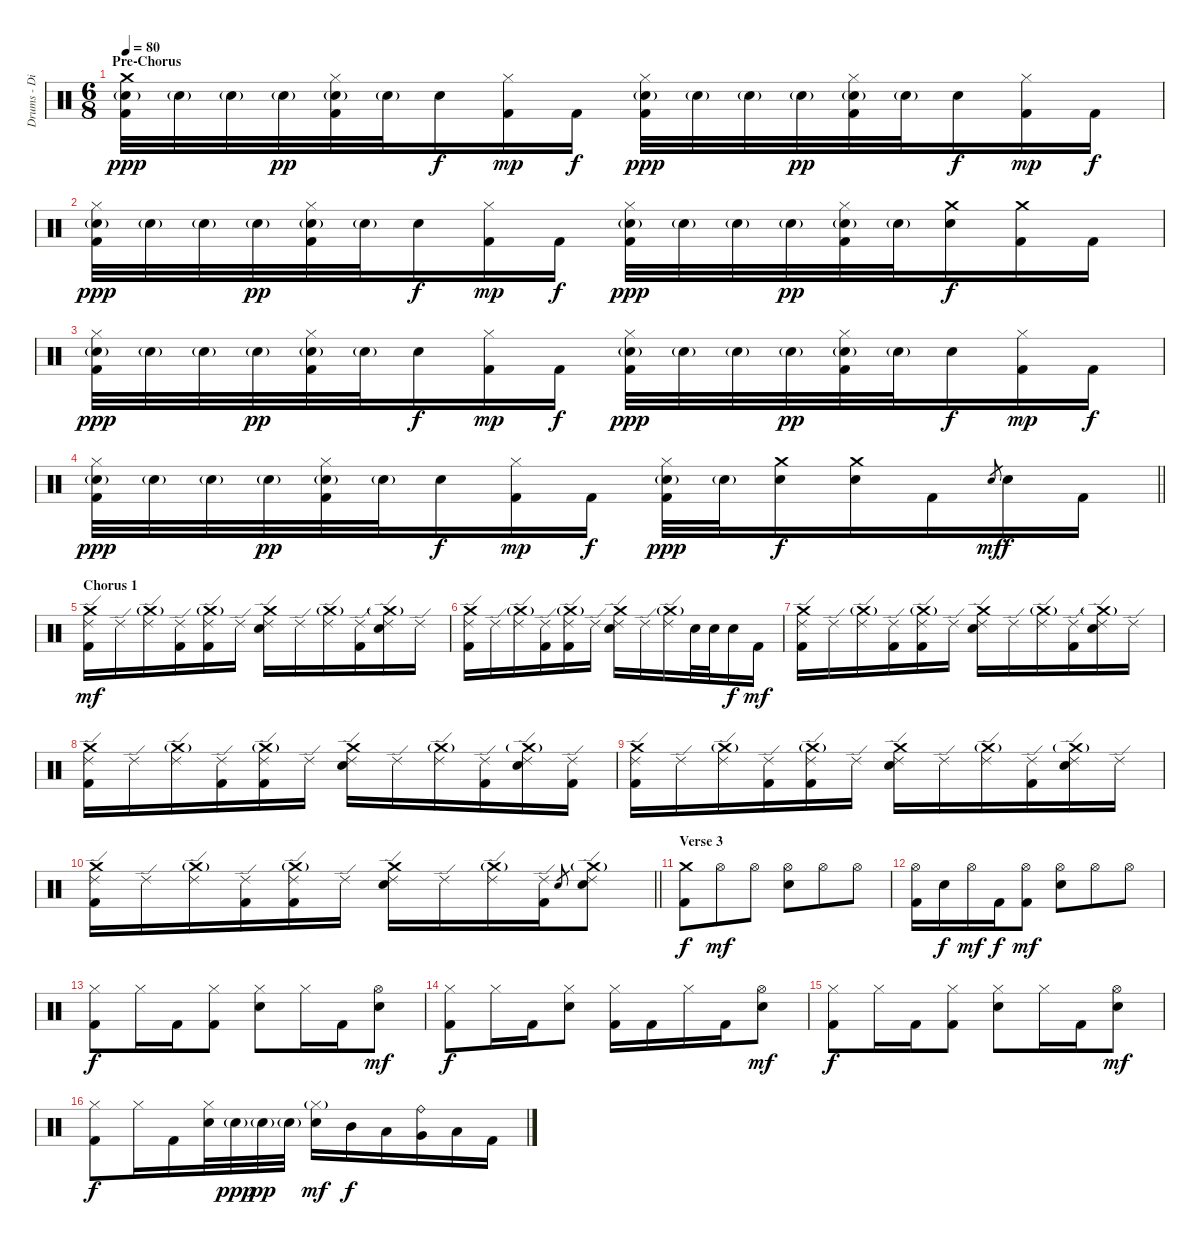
\track ("Drums - Dino Campanella" "Drums - Di") {instrument percussion}
\staff {score}
\articulation defaults
\ts (6 8)
\section ("" "Pre-Chorus")
\tempo 80
\clef neutral
\ks c
("Crash medium (hit)" "Snare (hit) 2"{g} "Kick (hit) 2").32{dy ppp} "Snare (hit) 2"{g}.32 "Snare (hit) 2"{g}.32 "Snare (hit) 2"{g}.32{dy pp} ("Hi-Hat (closed)" "Snare (hit) 2"{g} "Kick (hit) 2").32 "Snare (hit) 2"{g}.32 "Electric Snare (hit)".16{dy f} ("Hi-Hat (closed)" "Kick (hit) 2").16{dy mp} "Kick (hit) 2".16{dy f} ("Hi-Hat (closed)" "Snare (hit) 2"{g} "Kick (hit) 2").32{dy ppp} "Snare (hit) 2"{g}.32 "Snare (hit) 2"{g}.32 "Snare (hit) 2"{g}.32{dy pp} ("Hi-Hat (closed)" "Snare (hit) 2"{g} "Kick (hit) 2").32 "Snare (hit) 2"{g}.32 "Electric Snare (hit)".16{dy f} ("Hi-Hat (closed)" "Kick (hit) 2").16{dy mp} "Kick (hit) 2".16{dy f} |
("Hi-Hat (closed)" "Snare (hit) 2"{g} "Kick (hit) 2").32{dy ppp} "Snare (hit) 2"{g}.32 "Snare (hit) 2"{g}.32 "Snare (hit) 2"{g}.32{dy pp} ("Hi-Hat (closed)" "Snare (hit) 2"{g} "Kick (hit) 2").32 "Snare (hit) 2"{g}.32 "Electric Snare (hit)".16{dy f} ("Hi-Hat (closed)" "Kick (hit) 2").16{dy mp} "Kick (hit) 2".16{dy f} ("Hi-Hat (closed)" "Snare (hit) 2"{g} "Kick (hit) 2").32{dy ppp} "Snare (hit) 2"{g}.32 "Snare (hit) 2"{g}.32 "Snare (hit) 2"{g}.32{dy pp} ("Hi-Hat (closed)" "Snare (hit) 2"{g} "Kick (hit) 2").32 "Snare (hit) 2"{g}.32 ("Crash medium (hit)" "Electric Snare (hit)").16{dy f} ("Crash medium (hit)" "Kick (hit) 2").16 "Kick (hit) 2".16 |
("Hi-Hat (closed)" "Snare (hit) 2"{g} "Kick (hit) 2").32{dy ppp} "Snare (hit) 2"{g}.32 "Snare (hit) 2"{g}.32 "Snare (hit) 2"{g}.32{dy pp} ("Hi-Hat (closed)" "Snare (hit) 2"{g} "Kick (hit) 2").32 "Snare (hit) 2"{g}.32 "Electric Snare (hit)".16{dy f} ("Hi-Hat (closed)" "Kick (hit) 2").16{dy mp} "Kick (hit) 2".16{dy f} ("Hi-Hat (closed)" "Snare (hit) 2"{g} "Kick (hit) 2").32{dy ppp} "Snare (hit) 2"{g}.32 "Snare (hit) 2"{g}.32 "Snare (hit) 2"{g}.32{dy pp} ("Hi-Hat (closed)" "Snare (hit) 2"{g} "Kick (hit) 2").32 "Snare (hit) 2"{g}.32 "Electric Snare (hit)".16{dy f} ("Hi-Hat (closed)" "Kick (hit) 2").16{dy mp} "Kick (hit) 2".16{dy f} |
\barLineRight lightlight
("Hi-Hat (closed)" "Snare (hit) 2"{g} "Kick (hit) 2").32{dy ppp} "Snare (hit) 2"{g}.32 "Snare (hit) 2"{g}.32 "Snare (hit) 2"{g}.32{dy pp} ("Hi-Hat (closed)" "Snare (hit) 2"{g} "Kick (hit) 2").32 "Snare (hit) 2"{g}.32 "Electric Snare (hit)".16{dy f} ("Hi-Hat (closed)" "Kick (hit) 2").16{dy mp} "Kick (hit) 2".16{dy f} ("Hi-Hat (closed)" "Snare (hit) 2"{g} "Kick (hit) 2").32{dy ppp} "Snare (hit) 2"{g}.32 ("Crash medium (hit)" "Electric Snare (hit)").16{dy f} ("Crash medium (hit)" "Electric Snare (hit)").16 "Kick (hit) 2".16 "Electric Snare (hit)".8{gr dy mf} "Electric Snare (hit)".16{dy f} "Kick (hit) 2".16 |
\section ("" "Chorus 1")
("Crash medium (hit)" "Ride (edge) 2" "Kick (hit) 2").16{dy mf} "Ride (edge) 2".16 ("Crash medium (hit)"{g} "Ride (edge) 2").16 ("Ride (edge) 2" "Kick (hit) 2").16 ("Crash medium (hit)"{g} "Ride (edge) 2" "Kick (hit) 2").16 "Ride (edge) 2".16 ("Crash medium (hit)" "Ride (edge) 2" "Electric Snare (hit)").16 "Ride (edge) 2".16 ("Crash medium (hit)"{g} "Ride (edge) 2").16 ("Ride (edge) 2" "Kick (hit) 2").16 ("Crash medium (hit)"{g} "Ride (edge) 2" "Electric Snare (hit)").16 "Ride (edge) 2".16 |
("Crash medium (hit)" "Ride (edge) 2" "Kick (hit) 2").16 "Ride (edge) 2".16 ("Crash medium (hit)"{g} "Ride (edge) 2").16 ("Ride (edge) 2" "Kick (hit) 2").16 ("Crash medium (hit)"{g} "Ride (edge) 2" "Kick (hit) 2").16 "Ride (edge) 2".16 ("Crash medium (hit)" "Ride (edge) 2" "Electric Snare (hit)").16 "Ride (edge) 2".16 ("Crash medium (hit)"{g} "Ride (edge) 2").16 "Electric Snare (hit)".32 "Electric Snare (hit)".32 "Electric Snare (hit)".16{dy f} "Kick (hit) 2".16{dy mf} |
("Crash medium (hit)" "Ride (edge) 2" "Kick (hit) 2").16 "Ride (edge) 2".16 ("Crash medium (hit)"{g} "Ride (edge) 2").16 ("Ride (edge) 2" "Kick (hit) 2").16 ("Crash medium (hit)"{g} "Ride (edge) 2" "Kick (hit) 2").16 "Ride (edge) 2".16 ("Crash medium (hit)" "Ride (edge) 2" "Electric Snare (hit)").16 "Ride (edge) 2".16 ("Crash medium (hit)"{g} "Ride (edge) 2").16 ("Ride (edge) 2" "Kick (hit) 2").16 ("Crash medium (hit)"{g} "Ride (edge) 2" "Electric Snare (hit)").16 "Ride (edge) 2".16 |
("Crash medium (hit)" "Ride (edge) 2" "Kick (hit) 2").16 "Ride (edge) 2".16 ("Crash medium (hit)"{g} "Ride (edge) 2").16 ("Ride (edge) 2" "Kick (hit) 2").16 ("Crash medium (hit)"{g} "Ride (edge) 2" "Kick (hit) 2").16 "Ride (edge) 2".16 ("Crash medium (hit)" "Ride (edge) 2" "Electric Snare (hit)").16 "Ride (edge) 2".16 ("Crash medium (hit)"{g} "Ride (edge) 2").16 ("Ride (edge) 2" "Kick (hit) 2").16 ("Crash medium (hit)"{g} "Ride (edge) 2" "Electric Snare (hit)").16 ("Ride (edge) 2" "Kick (hit) 2").16 |
("Crash medium (hit)" "Ride (edge) 2" "Kick (hit) 2").16 "Ride (edge) 2".16 ("Crash medium (hit)"{g} "Ride (edge) 2").16 ("Ride (edge) 2" "Kick (hit) 2").16 ("Crash medium (hit)"{g} "Ride (edge) 2" "Kick (hit) 2").16 "Ride (edge) 2".16 ("Crash medium (hit)" "Ride (edge) 2" "Electric Snare (hit)").16 "Ride (edge) 2".16 ("Crash medium (hit)"{g} "Ride (edge) 2").16 ("Ride (edge) 2" "Kick (hit) 2").16 ("Crash medium (hit)"{g} "Ride (edge) 2" "Electric Snare (hit)").16 "Ride (edge) 2".16 |
\barLineRight lightlight
("Crash medium (hit)" "Ride (edge) 2" "Kick (hit) 2").16 "Ride (edge) 2".16 ("Crash medium (hit)"{g} "Ride (edge) 2").16 ("Ride (edge) 2" "Kick (hit) 2").16 ("Crash medium (hit)"{g} "Ride (edge) 2" "Kick (hit) 2").16 "Ride (edge) 2".16 ("Crash medium (hit)" "Ride (edge) 2" "Electric Snare (hit)").16 "Ride (edge) 2".16 ("Crash medium (hit)"{g} "Ride (edge) 2").16 ("Ride (edge) 2" "Kick (hit) 2").16 "Electric Snare (hit)".8{gr} ("Crash medium (hit)"{g} "Ride (edge) 2" "Electric Snare (hit)").8 |
\section ("" "Verse 3")
("Crash medium (hit)" "Kick (hit) 2").8{dy f} "Hi-Hat (open)".8{dy mf} "Hi-Hat (open)".8 ("Hi-Hat (open)" "Electric Snare (hit)").8 "Hi-Hat (open)".8 "Hi-Hat (open)".8 |
("Hi-Hat (open)" "Kick (hit) 2").16 "Electric Snare (hit)".16{dy f} "Hi-Hat (open)".16{dy mf} "Kick (hit) 2".16{dy f} ("Hi-Hat (open)" "Kick (hit) 2").8{dy mf} ("Hi-Hat (open)" "Electric Snare (hit)").8 "Hi-Hat (open)".8 "Hi-Hat (open)".8 |
("Hi-Hat (closed)" "Kick (hit) 2").8{dy f} "Hi-Hat (closed)".16 "Kick (hit) 2".16 ("Hi-Hat (closed)" "Kick (hit) 2").8 ("Hi-Hat (closed)" "Electric Snare (hit)").8 "Hi-Hat (closed)".16 "Kick (hit) 2".16 ("Hi-Hat (open)" "Electric Snare (hit)").8{dy mf} |
("Hi-Hat (closed)" "Kick (hit) 2").8{dy f} "Hi-Hat (closed)".16 "Kick (hit) 2".16 ("Hi-Hat (closed)" "Electric Snare (hit)").8 ("Hi-Hat (closed)" "Kick (hit) 2").16 "Kick (hit) 2".16 "Hi-Hat (closed)".16 "Kick (hit) 2".16 ("Hi-Hat (open)" "Electric Snare (hit)").8{dy mf} |
("Hi-Hat (closed)" "Kick (hit) 2").8{dy f} "Hi-Hat (closed)".16 "Kick (hit) 2".16 ("Hi-Hat (closed)" "Kick (hit) 2").8 ("Hi-Hat (closed)" "Electric Snare (hit)").8 "Hi-Hat (closed)".16 "Kick (hit) 2".16 ("Hi-Hat (open)" "Electric Snare (hit)").8{dy mf} |
("Hi-Hat (closed)" "Kick (hit) 2").8{dy f} "Hi-Hat (closed)".16 "Kick (hit) 2".16 ("Hi-Hat (closed)" "Electric Snare (hit)").32 "Snare (hit) 2"{g}.32{dy ppp} "Snare (hit) 2"{g}.32{dy pp} "Snare (hit) 2"{g}.32 ("Hi-Hat (closed)"{g} "Electric Snare (hit)").16{dy mf} "Mid Tom (hit)".16{dy f} "Low Tom (hit)".16 ("Ride (bell)" "Very Low Tom (hit)").16 "Low Floor Tom (hit)".16 "Kick (hit) 2".16
